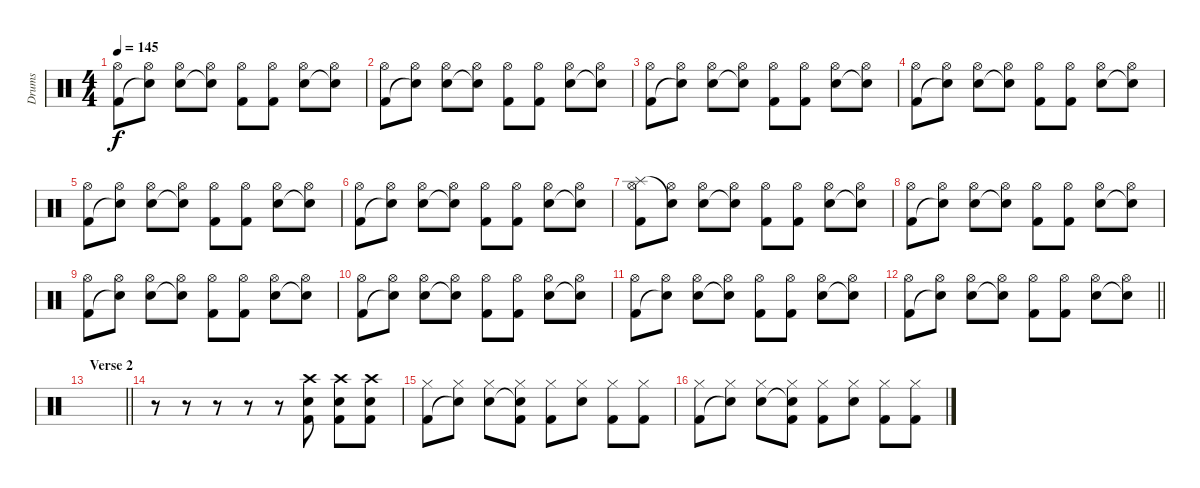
\track ("Drums" "Drums") {instrument percussion}
\staff {score}
\articulation defaults
\ts (4 4)
\tempo 145
\clef neutral
\ks c
("Hi-Hat (open)" "Kick (hit) 2").8{dy f} ("Hi-Hat (open)" "Snare (hit)"{t}).8 ("Hi-Hat (open)" "Electric Snare (hit)").8 ("Hi-Hat (open)" "Snare (hit)"{t}).8 ("Hi-Hat (open)" "Kick (hit) 2").8 ("Hi-Hat (open)" "Kick (hit) 2").8 ("Hi-Hat (open)" "Electric Snare (hit)").8 ("Hi-Hat (open)" "Snare (hit)"{t}).8 |
("Hi-Hat (open)" "Kick (hit) 2").8 ("Hi-Hat (open)" "Snare (hit)"{t}).8 ("Hi-Hat (open)" "Electric Snare (hit)").8 ("Hi-Hat (open)" "Snare (hit)"{t}).8 ("Hi-Hat (open)" "Kick (hit) 2").8 ("Hi-Hat (open)" "Kick (hit) 2").8 ("Hi-Hat (open)" "Electric Snare (hit)").8 ("Hi-Hat (open)" "Snare (hit)"{t}).8 |
("Hi-Hat (open)" "Kick (hit) 2").8 ("Hi-Hat (open)" "Snare (hit)"{t}).8 ("Hi-Hat (open)" "Electric Snare (hit)").8 ("Hi-Hat (open)" "Snare (hit)"{t}).8 ("Hi-Hat (open)" "Kick (hit) 2").8 ("Hi-Hat (open)" "Kick (hit) 2").8 ("Hi-Hat (open)" "Electric Snare (hit)").8 ("Hi-Hat (open)" "Snare (hit)"{t}).8 |
("Hi-Hat (open)" "Kick (hit) 2").8 ("Hi-Hat (open)" "Snare (hit)"{t}).8 ("Hi-Hat (open)" "Electric Snare (hit)").8 ("Hi-Hat (open)" "Snare (hit)"{t}).8 ("Hi-Hat (open)" "Kick (hit) 2").8 ("Hi-Hat (open)" "Kick (hit) 2").8 ("Hi-Hat (open)" "Electric Snare (hit)").8 ("Hi-Hat (open)" "Snare (hit)"{t}).8 |
("Hi-Hat (open)" "Kick (hit) 2").8 ("Hi-Hat (open)" "Snare (hit)"{t}).8 ("Hi-Hat (open)" "Electric Snare (hit)").8 ("Hi-Hat (open)" "Snare (hit)"{t}).8 ("Hi-Hat (open)" "Kick (hit) 2").8 ("Hi-Hat (open)" "Kick (hit) 2").8 ("Hi-Hat (open)" "Electric Snare (hit)").8 ("Hi-Hat (open)" "Snare (hit)"{t}).8 |
("Hi-Hat (open)" "Kick (hit) 2").8 ("Hi-Hat (open)" "Snare (hit)"{t}).8 ("Hi-Hat (open)" "Electric Snare (hit)").8 ("Hi-Hat (open)" "Snare (hit)"{t}).8 ("Hi-Hat (open)" "Kick (hit) 2").8 ("Hi-Hat (open)" "Kick (hit) 2").8 ("Hi-Hat (open)" "Electric Snare (hit)").8 ("Hi-Hat (open)" "Snare (hit)"{t}).8 |
("Hi-Hat (open)" "Splash (hit)" "Kick (hit) 2").8 ("Hi-Hat (open)" "Snare (hit)"{t}).8 ("Hi-Hat (open)" "Electric Snare (hit)").8 ("Hi-Hat (open)" "Snare (hit)"{t}).8 ("Hi-Hat (open)" "Kick (hit) 2").8 ("Hi-Hat (open)" "Kick (hit) 2").8 ("Hi-Hat (open)" "Electric Snare (hit)").8 ("Hi-Hat (open)" "Snare (hit)"{t}).8 |
("Hi-Hat (open)" "Kick (hit) 2").8 ("Hi-Hat (open)" "Snare (hit)"{t}).8 ("Hi-Hat (open)" "Electric Snare (hit)").8 ("Hi-Hat (open)" "Snare (hit)"{t}).8 ("Hi-Hat (open)" "Kick (hit) 2").8 ("Hi-Hat (open)" "Kick (hit) 2").8 ("Hi-Hat (open)" "Electric Snare (hit)").8 ("Hi-Hat (open)" "Snare (hit)"{t}).8 |
("Hi-Hat (open)" "Kick (hit) 2").8 ("Hi-Hat (open)" "Snare (hit)"{t}).8 ("Hi-Hat (open)" "Electric Snare (hit)").8 ("Hi-Hat (open)" "Snare (hit)"{t}).8 ("Hi-Hat (open)" "Kick (hit) 2").8 ("Hi-Hat (open)" "Kick (hit) 2").8 ("Hi-Hat (open)" "Electric Snare (hit)").8 ("Hi-Hat (open)" "Snare (hit)"{t}).8 |
("Hi-Hat (open)" "Kick (hit) 2").8 ("Hi-Hat (open)" "Snare (hit)"{t}).8 ("Hi-Hat (open)" "Electric Snare (hit)").8 ("Hi-Hat (open)" "Snare (hit)"{t}).8 ("Hi-Hat (open)" "Kick (hit) 2").8 ("Hi-Hat (open)" "Kick (hit) 2").8 ("Hi-Hat (open)" "Electric Snare (hit)").8 ("Hi-Hat (open)" "Snare (hit)"{t}).8 |
("Hi-Hat (open)" "Kick (hit) 2").8 ("Hi-Hat (open)" "Snare (hit)"{t}).8 ("Hi-Hat (open)" "Electric Snare (hit)").8 ("Hi-Hat (open)" "Snare (hit)"{t}).8 ("Hi-Hat (open)" "Kick (hit) 2").8 ("Hi-Hat (open)" "Kick (hit) 2").8 ("Hi-Hat (open)" "Electric Snare (hit)").8 ("Hi-Hat (open)" "Snare (hit)"{t}).8 |
\barLineRight lightlight
("Hi-Hat (open)" "Kick (hit) 2").8 ("Hi-Hat (open)" "Snare (hit)"{t}).8 ("Hi-Hat (open)" "Electric Snare (hit)").8 ("Hi-Hat (open)" "Snare (hit)"{t}).8 ("Hi-Hat (open)" "Kick (hit) 2").8 ("Hi-Hat (open)" "Kick (hit) 2").8 ("Hi-Hat (open)" "Electric Snare (hit)").8 ("Hi-Hat (open)" "Snare (hit)"{t}).8 |
\section ("" "Verse 2")
\barLineRight lightlight
|
\section ("" "")
r.8 r.8 r.8 r.8 r.8 ("Crash high (hit)" "Electric Snare (hit)" "Kick (hit) 2").8 ("Crash high (hit)" "Electric Snare (hit)" "Kick (hit) 2").8 ("Crash high (hit)" "Electric Snare (hit)" "Kick (hit) 2").8 |
("Hi-Hat (closed)" "Kick (hit) 2").8 ("Hi-Hat (closed)" "Snare (hit)"{t}).8 ("Hi-Hat (closed)" "Electric Snare (hit)").8 ("Hi-Hat (closed)" "Snare (hit)"{t} "Kick (hit) 2").8 ("Hi-Hat (closed)" "Kick (hit) 2").8 ("Hi-Hat (closed)" "Electric Snare (hit)").8 ("Hi-Hat (closed)" "Kick (hit) 2").8 ("Hi-Hat (closed)" "Kick (hit) 2").8 |
("Hi-Hat (closed)" "Kick (hit) 2").8 ("Hi-Hat (closed)" "Snare (hit)"{t}).8 ("Hi-Hat (closed)" "Electric Snare (hit)").8 ("Hi-Hat (closed)" "Snare (hit)"{t} "Kick (hit) 2").8 ("Hi-Hat (closed)" "Kick (hit) 2").8 ("Hi-Hat (closed)" "Electric Snare (hit)").8 ("Hi-Hat (closed)" "Kick (hit) 2").8 ("Hi-Hat (closed)" "Kick (hit) 2").8
